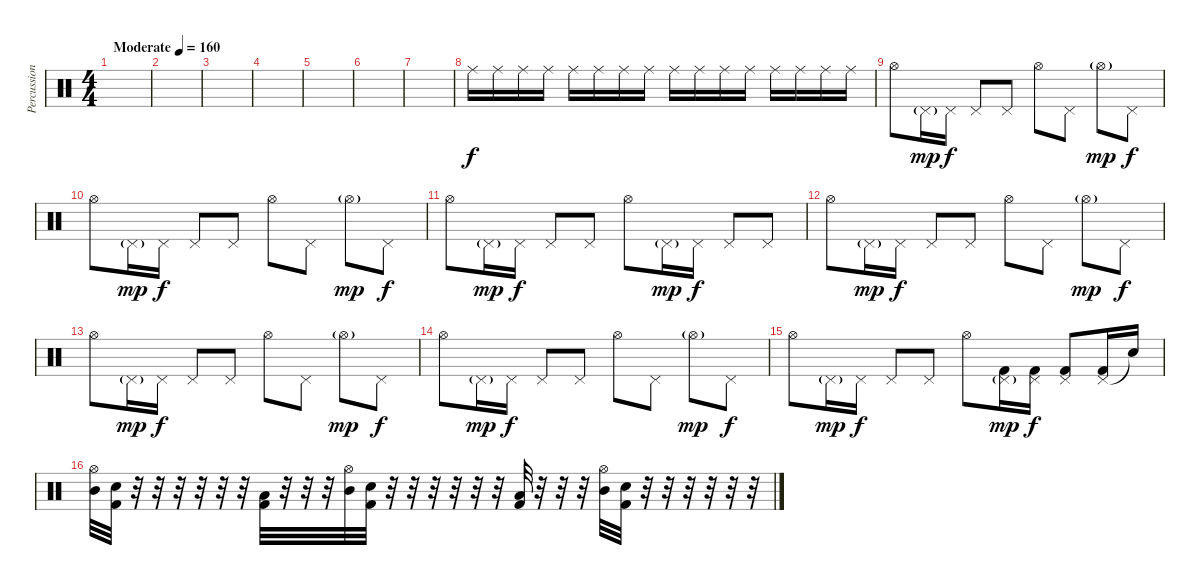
\track ("Percussion" "Percussion") {instrument percussion}
\staff {score}
\articulation defaults
\ts (4 4)
\tempo (160 "Moderate")
\clef neutral
\ks c
|
|
|
|
|
|
|
"Ride (middle)".16{volume 12} "Ride (middle)".16 "Ride (middle)".16 "Ride (middle)".16 "Ride (middle)".16 "Ride (middle)".16 "Ride (middle)".16 "Ride (middle)".16 "Ride (middle)".16 "Ride (middle)".16 "Ride (middle)".16 "Ride (middle)".16 "Ride (middle)".16 "Ride (middle)".16 "Ride (middle)".16 "Ride (middle)".16 |
"Hi-Hat (open)".8{volume 13} "Pedal Hi-Hat (hit)"{g}.16{dy mp} "Pedal Hi-Hat (hit)".16{dy f} "Pedal Hi-Hat (hit)".8 "Pedal Hi-Hat (hit)".8 "Hi-Hat (open)".8 "Pedal Hi-Hat (hit)".8 "Hi-Hat (open)"{g}.8{dy mp} "Pedal Hi-Hat (hit)".8{dy f} |
"Hi-Hat (open)".8 "Pedal Hi-Hat (hit)"{g}.16{dy mp} "Pedal Hi-Hat (hit)".16{dy f} "Pedal Hi-Hat (hit)".8 "Pedal Hi-Hat (hit)".8 "Hi-Hat (open)".8 "Pedal Hi-Hat (hit)".8 "Hi-Hat (open)"{g}.8{dy mp} "Pedal Hi-Hat (hit)".8{dy f} |
"Hi-Hat (open)".8 "Pedal Hi-Hat (hit)"{g}.16{dy mp} "Pedal Hi-Hat (hit)".16{dy f} "Pedal Hi-Hat (hit)".8 "Pedal Hi-Hat (hit)".8 "Hi-Hat (open)".8 "Pedal Hi-Hat (hit)"{g}.16{dy mp} "Pedal Hi-Hat (hit)".16{dy f} "Pedal Hi-Hat (hit)".8 "Pedal Hi-Hat (hit)".8 |
"Hi-Hat (open)".8 "Pedal Hi-Hat (hit)"{g}.16{dy mp} "Pedal Hi-Hat (hit)".16{dy f} "Pedal Hi-Hat (hit)".8 "Pedal Hi-Hat (hit)".8 "Hi-Hat (open)".8 "Pedal Hi-Hat (hit)".8 "Hi-Hat (open)"{g}.8{dy mp} "Pedal Hi-Hat (hit)".8{dy f} |
"Hi-Hat (open)".8 "Pedal Hi-Hat (hit)"{g}.16{dy mp} "Pedal Hi-Hat (hit)".16{dy f} "Pedal Hi-Hat (hit)".8 "Pedal Hi-Hat (hit)".8 "Hi-Hat (open)".8 "Pedal Hi-Hat (hit)".8 "Hi-Hat (open)"{g}.8{dy mp} "Pedal Hi-Hat (hit)".8{dy f} |
"Hi-Hat (open)".8 "Pedal Hi-Hat (hit)"{g}.16{dy mp} "Pedal Hi-Hat (hit)".16{dy f} "Pedal Hi-Hat (hit)".8 "Pedal Hi-Hat (hit)".8 "Hi-Hat (open)".8 "Pedal Hi-Hat (hit)".8 "Hi-Hat (open)"{g}.8{dy mp} "Pedal Hi-Hat (hit)".8{dy f} |
"Hi-Hat (open)".8 "Pedal Hi-Hat (hit)"{g}.16{dy mp} "Pedal Hi-Hat (hit)".16{dy f} "Pedal Hi-Hat (hit)".8 "Pedal Hi-Hat (hit)".8 "Hi-Hat (open)".8 ("Pedal Hi-Hat (hit)"{g} "Kick (hit) 2").16{dy mp} ("Pedal Hi-Hat (hit)" "Kick (hit) 2").16{dy f} ("Pedal Hi-Hat (hit)" "Kick (hit) 2").8 ("Pedal Hi-Hat (hit)" "Kick (hit) 2").16 "Snare (hit)"{t}.16 |
("Hi-Hat (open)" "Mid Tom (hit)").32 ("Electric Snare (hit)" "Kick (hit) 2").32 r.32 r.32 r.32 r.32 r.32 r.32 ("Low Floor Tom (hit)" "Kick (hit) 2").32 r.32 r.32 r.32 ("Hi-Hat (open)" "Mid Tom (hit)").32 ("Electric Snare (hit)" "Kick (hit) 2").32 r.32 r.32 r.32 r.32 r.32 r.32 ("Low Floor Tom (hit)" "Kick (hit) 2").32 r.32 r.32 r.32 ("Hi-Hat (open)" "Mid Tom (hit)").32 ("Electric Snare (hit)" "Kick (hit) 2").32 r.32 r.32 r.32 r.32 r.32 r.32
